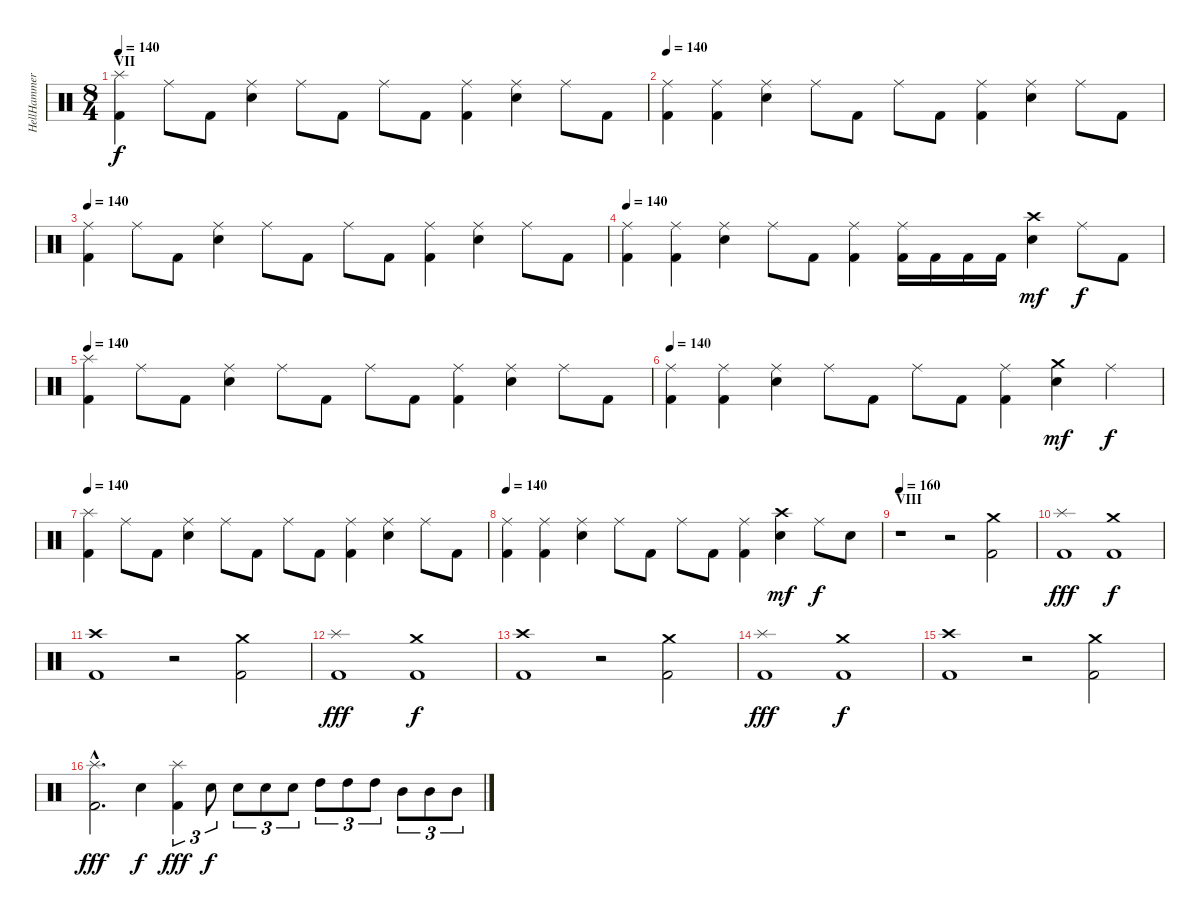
\track ("HellHammer" "HellHammer") {instrument percussion}
\staff {score}
\articulation defaults
\ts (8 4)
\section ("" "VII")
\tempo 140
\clef neutral
\ks c
("Kick (hit) 2" "Splash (hit)").4{dy f} "Ride (middle)".8 "Kick (hit) 2".8 ("Electric Snare (hit)" "Ride (middle)").4 "Ride (middle)".8 "Kick (hit) 2".8 "Ride (middle)".8 "Kick (hit) 2".8 ("Kick (hit) 2" "Ride (middle)").4 ("Electric Snare (hit)" "Ride (middle)").4 "Ride (middle)".8 "Kick (hit) 2".8 |
\tempo 140
("Kick (hit) 2" "Ride (middle)").4 ("Kick (hit) 2" "Ride (middle)").4 ("Electric Snare (hit)" "Ride (middle)").4 "Ride (middle)".8 "Kick (hit) 2".8 "Ride (middle)".8 "Kick (hit) 2".8 ("Kick (hit) 2" "Ride (middle)").4 ("Electric Snare (hit)" "Ride (middle)").4 "Ride (middle)".8 "Kick (hit) 2".8 |
\tempo 140
("Kick (hit) 2" "Ride (middle)").4 "Ride (middle)".8 "Kick (hit) 2".8 ("Electric Snare (hit)" "Ride (middle)").4 "Ride (middle)".8 "Kick (hit) 2".8 "Ride (middle)".8 "Kick (hit) 2".8 ("Kick (hit) 2" "Ride (middle)").4 ("Electric Snare (hit)" "Ride (middle)").4 "Ride (middle)".8 "Kick (hit) 2".8 |
\tempo 140
("Kick (hit) 2" "Ride (middle)").4 ("Kick (hit) 2" "Ride (middle)").4 ("Electric Snare (hit)" "Ride (middle)").4 "Ride (middle)".8 "Kick (hit) 2".8 ("Kick (hit) 2" "Ride (middle)").4 ("Kick (hit) 2" "Ride (middle)").16 "Kick (hit) 2".16 "Kick (hit) 2".16 "Kick (hit) 2".16 ("Electric Snare (hit)" "Crash high (hit)").4{dy mf} "Ride (middle)".8{dy f} "Kick (hit) 2".8 |
\tempo 140
("Kick (hit) 2" "Splash (hit)").4 "Ride (middle)".8 "Kick (hit) 2".8 ("Electric Snare (hit)" "Ride (middle)").4 "Ride (middle)".8 "Kick (hit) 2".8 "Ride (middle)".8 "Kick (hit) 2".8 ("Kick (hit) 2" "Ride (middle)").4 ("Electric Snare (hit)" "Ride (middle)").4 "Ride (middle)".8 "Kick (hit) 2".8 |
\tempo 140
("Kick (hit) 2" "Ride (middle)").4 ("Kick (hit) 2" "Ride (middle)").4 ("Electric Snare (hit)" "Ride (middle)").4 "Ride (middle)".8 "Kick (hit) 2".8 "Ride (middle)".8 "Kick (hit) 2".8 ("Kick (hit) 2" "Ride (middle)").4 ("Electric Snare (hit)" "Crash medium (hit)").4{dy mf} "Ride (middle)".4{dy f} |
\tempo 140
("Kick (hit) 2" "Splash (hit)").4 "Ride (middle)".8 "Kick (hit) 2".8 ("Electric Snare (hit)" "Ride (middle)").4 "Ride (middle)".8 "Kick (hit) 2".8 "Ride (middle)".8 "Kick (hit) 2".8 ("Kick (hit) 2" "Ride (middle)").4 ("Electric Snare (hit)" "Ride (middle)").4 "Ride (middle)".8 "Kick (hit) 2".8 |
\tempo 140
("Kick (hit) 2" "Ride (middle)").4 ("Kick (hit) 2" "Ride (middle)").4 ("Electric Snare (hit)" "Ride (middle)").4 "Ride (middle)".8 "Kick (hit) 2".8 "Ride (middle)".8 "Kick (hit) 2".8 ("Kick (hit) 2" "Ride (middle)").4 ("Electric Snare (hit)" "Crash high (hit)").4{dy mf} "Ride (middle)".8{dy f} "Electric Snare (hit)".8 |
\section ("" "VIII")
\tempo 160
r.1 r.2 ("Kick (hit) 2" "Crash medium (hit)").2 |
("Kick (hit) 2" "Splash (hit)").1{dy fff} ("Kick (hit) 2" "Crash medium (hit)").1{dy f} |
("Kick (hit) 2" "Crash high (hit)").1 r.2 ("Kick (hit) 2" "Crash medium (hit)").2 |
("Kick (hit) 2" "Splash (hit)").1{dy fff} ("Kick (hit) 2" "Crash medium (hit)").1{dy f} |
("Kick (hit) 2" "Crash high (hit)").1 r.2 ("Kick (hit) 2" "Crash medium (hit)").2 |
("Kick (hit) 2" "Splash (hit)").1{dy fff} ("Kick (hit) 2" "Crash medium (hit)").1{dy f} |
("Kick (hit) 2" "Crash high (hit)").1 r.2 ("Kick (hit) 2" "Crash medium (hit)").2 |
("Kick (hit) 2"{hac} "Splash (hit)"{hac}).2{d dy fff} "Electric Snare (hit)".4{dy f} ("Kick (hit) 2" "Splash (hit)").4{tu (3 2) dy fff} "Electric Snare (hit)".8{tu (3 2) dy f} "Electric Snare (hit)".8{tu (3 2)} "Electric Snare (hit)".8{tu (3 2)} "Electric Snare (hit)".8{tu (3 2)} "High Tom (hit)".8{tu (3 2)} "High Tom (hit)".8{tu (3 2)} "High Tom (hit)".8{tu (3 2)} "Mid Tom (hit)".8{tu (3 2)} "Mid Tom (hit)".8{tu (3 2)} "Mid Tom (hit)".8{tu (3 2)}
